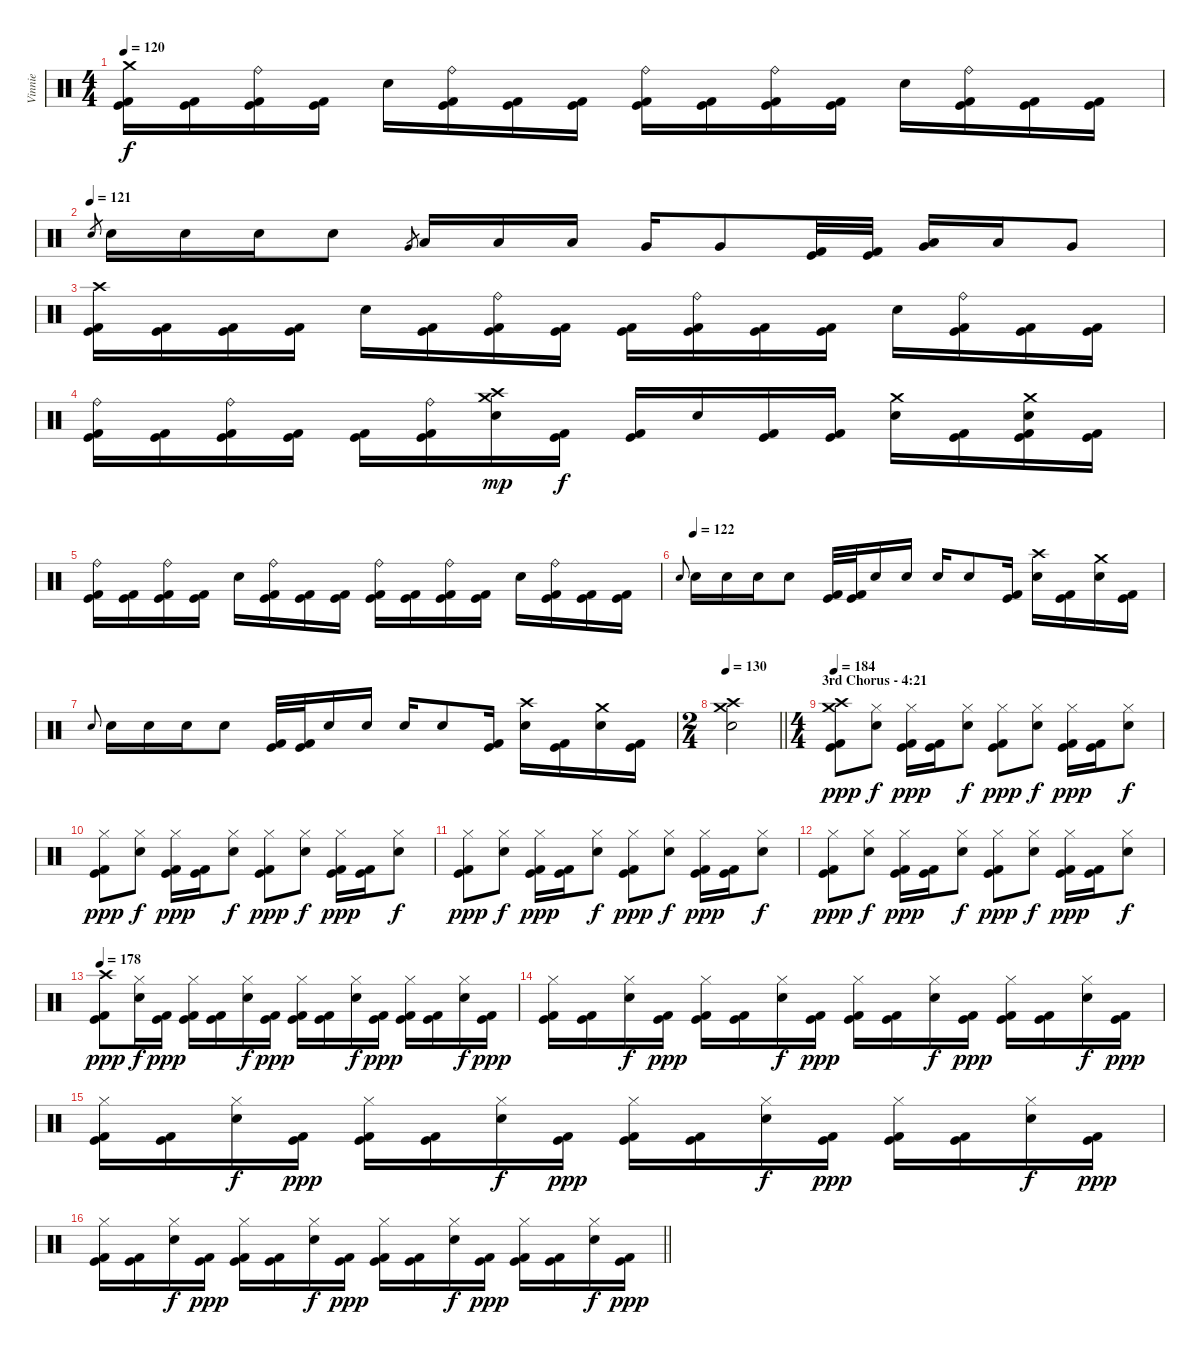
\track ("Vinnie" "Vinnie") {instrument percussion}
\staff {score}
\articulation defaults
\ts (4 4)
\tempo 120
\clef neutral
\ks c
("Crash medium (hit)" "Kick (hit)" "Kick (hit) 2").16{dy f} ("Kick (hit)" "Kick (hit) 2").16 ("Ride (bell)" "Kick (hit)" "Kick (hit) 2").16 ("Kick (hit)" "Kick (hit) 2").16 "Electric Snare (hit)".16 ("Ride (bell)" "Kick (hit)" "Kick (hit) 2").16 ("Kick (hit)" "Kick (hit) 2").16 ("Kick (hit)" "Kick (hit) 2").16 ("Ride (bell)" "Kick (hit)" "Kick (hit) 2").16 ("Kick (hit)" "Kick (hit) 2").16 ("Ride (bell)" "Kick (hit)" "Kick (hit) 2").16 ("Kick (hit)" "Kick (hit) 2").16 "Electric Snare (hit)".16 ("Ride (bell)" "Kick (hit)" "Kick (hit) 2").16 ("Kick (hit)" "Kick (hit) 2").16 ("Kick (hit)" "Kick (hit) 2").16 |
\tempo (121)
"Electric Snare (hit)".8{gr} "Electric Snare (hit)".16{bd 480} "Electric Snare (hit)".16 "Electric Snare (hit)".16 "Electric Snare (hit)".8 "Very Low Tom (hit)".8{gr} "Low Tom (hit)".16 "Low Tom (hit)".16 "Low Tom (hit)".16 "Very Low Tom (hit)".16 "Very Low Tom (hit)".8 ("Kick (hit)" "Kick (hit) 2").32 ("Kick (hit)" "Kick (hit) 2").32 ("Low Tom (hit)" "Very Low Tom (hit)").16{bd 240} "Low Tom (hit)".16 "Very Low Tom (hit)".8 |
("Crash high (hit)" "Kick (hit)" "Kick (hit) 2").16 ("Kick (hit)" "Kick (hit) 2").16 ("Kick (hit)" "Kick (hit) 2").16 ("Kick (hit)" "Kick (hit) 2").16 "Electric Snare (hit)".16 ("Kick (hit)" "Kick (hit) 2").16 ("Ride (bell)" "Kick (hit)" "Kick (hit) 2").16 ("Kick (hit)" "Kick (hit) 2").16 ("Kick (hit)" "Kick (hit) 2").16 ("Ride (bell)" "Kick (hit)" "Kick (hit) 2").16 ("Kick (hit)" "Kick (hit) 2").16 ("Kick (hit)" "Kick (hit) 2").16 "Electric Snare (hit)".16 ("Ride (bell)" "Kick (hit)" "Kick (hit) 2").16 ("Kick (hit)" "Kick (hit) 2").16 ("Kick (hit)" "Kick (hit) 2").16 |
("Ride (bell)" "Kick (hit)" "Kick (hit) 2").16 ("Kick (hit)" "Kick (hit) 2").16 ("Ride (bell)" "Kick (hit)" "Kick (hit) 2").16 ("Kick (hit)" "Kick (hit) 2").16 ("Kick (hit)" "Kick (hit) 2").16 ("Ride (bell)" "Kick (hit)" "Kick (hit) 2").16 ("Crash high (hit)" "Crash medium (hit)" "Electric Snare (hit)").16{dy mp} ("Kick (hit)" "Kick (hit) 2").16{dy f} ("Kick (hit)" "Kick (hit) 2").16 "Electric Snare (hit)".16 ("Kick (hit)" "Kick (hit) 2").16 ("Kick (hit)" "Kick (hit) 2").16 ("Crash medium (hit)" "Electric Snare (hit)").16 ("Kick (hit)" "Kick (hit) 2").16 ("Crash medium (hit)" "Electric Snare (hit)" "Kick (hit)" "Kick (hit) 2").16 ("Kick (hit)" "Kick (hit) 2").16 |
("Ride (bell)" "Kick (hit)" "Kick (hit) 2").16 ("Kick (hit)" "Kick (hit) 2").16 ("Ride (bell)" "Kick (hit)" "Kick (hit) 2").16 ("Kick (hit)" "Kick (hit) 2").16 "Electric Snare (hit)".16 ("Ride (bell)" "Kick (hit)" "Kick (hit) 2").16 ("Kick (hit)" "Kick (hit) 2").16 ("Kick (hit)" "Kick (hit) 2").16 ("Ride (bell)" "Kick (hit)" "Kick (hit) 2").16 ("Kick (hit)" "Kick (hit) 2").16 ("Ride (bell)" "Kick (hit)" "Kick (hit) 2").16 ("Kick (hit)" "Kick (hit) 2").16 "Electric Snare (hit)".16 ("Ride (bell)" "Kick (hit)" "Kick (hit) 2").16 ("Kick (hit)" "Kick (hit) 2").16 ("Kick (hit)" "Kick (hit) 2").16 |
\tempo (122 0.03125)
"Electric Snare (hit)".8{gr onbeat} "Electric Snare (hit)".16 "Electric Snare (hit)".16 "Electric Snare (hit)".16 "Electric Snare (hit)".8 ("Kick (hit)" "Kick (hit) 2").32 ("Kick (hit)" "Kick (hit) 2").32 "Electric Snare (hit)".16 "Electric Snare (hit)".16 "Electric Snare (hit)".16 "Electric Snare (hit)".8 ("Kick (hit)" "Kick (hit) 2").16 ("Crash high (hit)" "Electric Snare (hit)").16 ("Kick (hit)" "Kick (hit) 2").16 ("Crash medium (hit)" "Electric Snare (hit)").16 ("Kick (hit)" "Kick (hit) 2").16 |
"Electric Snare (hit)".8{gr onbeat} "Electric Snare (hit)".16{bd 480} "Electric Snare (hit)".16 "Electric Snare (hit)".16 "Electric Snare (hit)".8 ("Kick (hit)" "Kick (hit) 2").32 ("Kick (hit)" "Kick (hit) 2").32 "Electric Snare (hit)".16 "Electric Snare (hit)".16 "Electric Snare (hit)".16 "Electric Snare (hit)".8 ("Kick (hit)" "Kick (hit) 2").16 ("Crash high (hit)" "Electric Snare (hit)").16 ("Kick (hit)" "Kick (hit) 2").16 ("Crash medium (hit)" "Electric Snare (hit)").16 ("Kick (hit)" "Kick (hit) 2").16 |
\ts (2 4)
\tempo 130
\barLineRight lightlight
("Crash high (hit)" "Crash medium (hit)" "Electric Snare (hit)").2 |
\ts (4 4)
\section ("" "3rd Chorus - 4:21")
\tempo 184
("Crash high (hit)" "Crash medium (hit)" "Kick (hit)" "Kick (hit) 2").8{dy ppp} ("Hi-Hat (closed)" "Electric Snare (hit)").8{dy f} ("Hi-Hat (closed)" "Kick (hit)" "Kick (hit) 2").16{dy ppp} ("Kick (hit)" "Kick (hit) 2").16 ("Hi-Hat (closed)" "Electric Snare (hit)").8{dy f} ("Hi-Hat (closed)" "Kick (hit)" "Kick (hit) 2").8{dy ppp} ("Hi-Hat (closed)" "Electric Snare (hit)").8{dy f} ("Hi-Hat (closed)" "Kick (hit)" "Kick (hit) 2").16{dy ppp} ("Kick (hit)" "Kick (hit) 2").16 ("Hi-Hat (closed)" "Electric Snare (hit)").8{dy f} |
("Hi-Hat (closed)" "Kick (hit)" "Kick (hit) 2").8{dy ppp} ("Hi-Hat (closed)" "Electric Snare (hit)").8{dy f} ("Hi-Hat (closed)" "Kick (hit)" "Kick (hit) 2").16{dy ppp} ("Kick (hit)" "Kick (hit) 2").16 ("Hi-Hat (closed)" "Electric Snare (hit)").8{dy f} ("Hi-Hat (closed)" "Kick (hit)" "Kick (hit) 2").8{dy ppp} ("Hi-Hat (closed)" "Electric Snare (hit)").8{dy f} ("Hi-Hat (closed)" "Kick (hit)" "Kick (hit) 2").16{dy ppp} ("Kick (hit)" "Kick (hit) 2").16 ("Hi-Hat (closed)" "Electric Snare (hit)").8{dy f} |
("Hi-Hat (closed)" "Kick (hit)" "Kick (hit) 2").8{dy ppp} ("Hi-Hat (closed)" "Electric Snare (hit)").8{dy f} ("Hi-Hat (closed)" "Kick (hit)" "Kick (hit) 2").16{dy ppp} ("Kick (hit)" "Kick (hit) 2").16 ("Hi-Hat (closed)" "Electric Snare (hit)").8{dy f} ("Hi-Hat (closed)" "Kick (hit)" "Kick (hit) 2").8{dy ppp} ("Hi-Hat (closed)" "Electric Snare (hit)").8{dy f} ("Hi-Hat (closed)" "Kick (hit)" "Kick (hit) 2").16{dy ppp} ("Kick (hit)" "Kick (hit) 2").16 ("Hi-Hat (closed)" "Electric Snare (hit)").8{dy f} |
("Hi-Hat (closed)" "Kick (hit)" "Kick (hit) 2").8{dy ppp} ("Hi-Hat (closed)" "Electric Snare (hit)").8{dy f} ("Hi-Hat (closed)" "Kick (hit)" "Kick (hit) 2").16{dy ppp} ("Kick (hit)" "Kick (hit) 2").16 ("Hi-Hat (closed)" "Electric Snare (hit)").8{dy f} ("Hi-Hat (closed)" "Kick (hit)" "Kick (hit) 2").8{dy ppp} ("Hi-Hat (closed)" "Electric Snare (hit)").8{dy f} ("Hi-Hat (closed)" "Kick (hit)" "Kick (hit) 2").16{dy ppp} ("Kick (hit)" "Kick (hit) 2").16 ("Hi-Hat (closed)" "Electric Snare (hit)").8{dy f} |
\tempo 178
("Crash high (hit)" "Kick (hit)" "Kick (hit) 2").8{dy ppp} ("Hi-Hat (closed)" "Electric Snare (hit)").16{dy f} ("Kick (hit)" "Kick (hit) 2").16{dy ppp} ("Hi-Hat (closed)" "Kick (hit)" "Kick (hit) 2").16 ("Kick (hit)" "Kick (hit) 2").16 ("Hi-Hat (closed)" "Electric Snare (hit)").16{dy f} ("Kick (hit)" "Kick (hit) 2").16{dy ppp} ("Hi-Hat (closed)" "Kick (hit)" "Kick (hit) 2").16 ("Kick (hit)" "Kick (hit) 2").16 ("Hi-Hat (closed)" "Electric Snare (hit)").16{dy f} ("Kick (hit)" "Kick (hit) 2").16{dy ppp} ("Hi-Hat (closed)" "Kick (hit)" "Kick (hit) 2").16 ("Kick (hit)" "Kick (hit) 2").16 ("Hi-Hat (closed)" "Electric Snare (hit)").16{dy f} ("Kick (hit)" "Kick (hit) 2").16{dy ppp} |
("Hi-Hat (closed)" "Kick (hit)" "Kick (hit) 2").16 ("Kick (hit)" "Kick (hit) 2").16 ("Hi-Hat (closed)" "Electric Snare (hit)").16{dy f} ("Kick (hit)" "Kick (hit) 2").16{dy ppp} ("Hi-Hat (closed)" "Kick (hit)" "Kick (hit) 2").16 ("Kick (hit)" "Kick (hit) 2").16 ("Hi-Hat (closed)" "Electric Snare (hit)").16{dy f} ("Kick (hit)" "Kick (hit) 2").16{dy ppp} ("Hi-Hat (closed)" "Kick (hit)" "Kick (hit) 2").16 ("Kick (hit)" "Kick (hit) 2").16 ("Hi-Hat (closed)" "Electric Snare (hit)").16{dy f} ("Kick (hit)" "Kick (hit) 2").16{dy ppp} ("Hi-Hat (closed)" "Kick (hit)" "Kick (hit) 2").16 ("Kick (hit)" "Kick (hit) 2").16 ("Hi-Hat (closed)" "Electric Snare (hit)").16{dy f} ("Kick (hit)" "Kick (hit) 2").16{dy ppp} |
("Hi-Hat (closed)" "Kick (hit)" "Kick (hit) 2").16 ("Kick (hit)" "Kick (hit) 2").16 ("Hi-Hat (closed)" "Electric Snare (hit)").16{dy f} ("Kick (hit)" "Kick (hit) 2").16{dy ppp} ("Hi-Hat (closed)" "Kick (hit)" "Kick (hit) 2").16 ("Kick (hit)" "Kick (hit) 2").16 ("Hi-Hat (closed)" "Electric Snare (hit)").16{dy f} ("Kick (hit)" "Kick (hit) 2").16{dy ppp} ("Hi-Hat (closed)" "Kick (hit)" "Kick (hit) 2").16 ("Kick (hit)" "Kick (hit) 2").16 ("Hi-Hat (closed)" "Electric Snare (hit)").16{dy f} ("Kick (hit)" "Kick (hit) 2").16{dy ppp} ("Hi-Hat (closed)" "Kick (hit)" "Kick (hit) 2").16 ("Kick (hit)" "Kick (hit) 2").16 ("Hi-Hat (closed)" "Electric Snare (hit)").16{dy f} ("Kick (hit)" "Kick (hit) 2").16{dy ppp} |
\barLineRight lightlight
("Hi-Hat (closed)" "Kick (hit)" "Kick (hit) 2").16 ("Kick (hit)" "Kick (hit) 2").16 ("Hi-Hat (closed)" "Electric Snare (hit)").16{dy f} ("Kick (hit)" "Kick (hit) 2").16{dy ppp} ("Hi-Hat (closed)" "Kick (hit)" "Kick (hit) 2").16 ("Kick (hit)" "Kick (hit) 2").16 ("Hi-Hat (closed)" "Electric Snare (hit)").16{dy f} ("Kick (hit)" "Kick (hit) 2").16{dy ppp} ("Hi-Hat (closed)" "Kick (hit)" "Kick (hit) 2").16 ("Kick (hit)" "Kick (hit) 2").16 ("Hi-Hat (closed)" "Electric Snare (hit)").16{dy f} ("Kick (hit)" "Kick (hit) 2").16{dy ppp} ("Hi-Hat (closed)" "Kick (hit)" "Kick (hit) 2").16 ("Kick (hit)" "Kick (hit) 2").16 ("Hi-Hat (closed)" "Electric Snare (hit)").16{dy f} ("Kick (hit)" "Kick (hit) 2").16{dy ppp}
